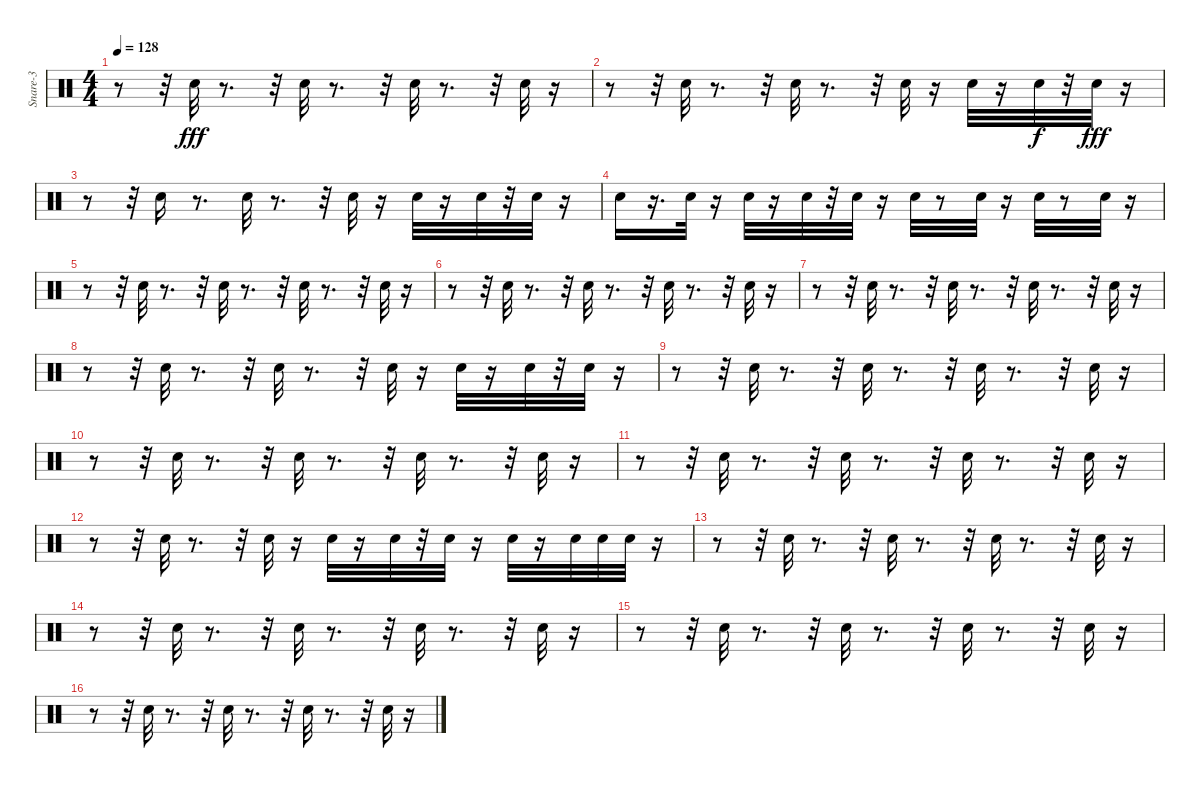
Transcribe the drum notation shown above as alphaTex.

\track ("Snare-3" "Snare-3") {instrument percussion}
\staff {score}
\articulation defaults
\ts (4 4)
\tempo 128
\clef neutral
\ks c
r.8{dy fff} r.32 "Electric Snare (hit)".32 r.8{d} r.32 "Electric Snare (hit)".32 r.8{d} r.32 "Electric Snare (hit)".32 r.8{d} r.32 "Electric Snare (hit)".32 r.16 |
r.8 r.32 "Electric Snare (hit)".32 r.8{d} r.32 "Electric Snare (hit)".32 r.8{d} r.32 "Electric Snare (hit)".32 r.16 "Electric Snare (hit)".32 r.16 "Electric Snare (hit)".32{dy f} r.32 "Electric Snare (hit)".32{dy fff} r.16 |
r.8 r.32 "Electric Snare (hit)".16 r.8{d} "Electric Snare (hit)".32 r.8{d} r.32 "Electric Snare (hit)".32 r.16 "Electric Snare (hit)".32 r.16 "Electric Snare (hit)".32 r.32 "Electric Snare (hit)".32 r.16 |
"Electric Snare (hit)".16 r.16{d} "Electric Snare (hit)".32 r.16 "Electric Snare (hit)".32 r.16 "Electric Snare (hit)".32 r.32 "Electric Snare (hit)".32 r.16 "Electric Snare (hit)".32 r.8 "Electric Snare (hit)".32 r.16 "Electric Snare (hit)".32 r.8 "Electric Snare (hit)".32 r.16 |
r.8 r.32 "Electric Snare (hit)".32 r.8{d} r.32 "Electric Snare (hit)".32 r.8{d} r.32 "Electric Snare (hit)".32 r.8{d} r.32 "Electric Snare (hit)".32 r.16 |
r.8 r.32 "Electric Snare (hit)".32 r.8{d} r.32 "Electric Snare (hit)".32 r.8{d} r.32 "Electric Snare (hit)".32 r.8{d} r.32 "Electric Snare (hit)".32 r.16 |
r.8 r.32 "Electric Snare (hit)".32 r.8{d} r.32 "Electric Snare (hit)".32 r.8{d} r.32 "Electric Snare (hit)".32 r.8{d} r.32 "Electric Snare (hit)".32 r.16 |
r.8 r.32 "Electric Snare (hit)".32 r.8{d} r.32 "Electric Snare (hit)".32 r.8{d} r.32 "Electric Snare (hit)".32 r.16 "Electric Snare (hit)".32 r.16 "Electric Snare (hit)".32 r.32 "Electric Snare (hit)".32 r.16 |
r.8 r.32 "Electric Snare (hit)".32 r.8{d} r.32 "Electric Snare (hit)".32 r.8{d} r.32 "Electric Snare (hit)".32 r.8{d} r.32 "Electric Snare (hit)".32 r.16 |
r.8 r.32 "Electric Snare (hit)".32 r.8{d} r.32 "Electric Snare (hit)".32 r.8{d} r.32 "Electric Snare (hit)".32 r.8{d} r.32 "Electric Snare (hit)".32 r.16 |
r.8 r.32 "Electric Snare (hit)".32 r.8{d} r.32 "Electric Snare (hit)".32 r.8{d} r.32 "Electric Snare (hit)".32 r.8{d} r.32 "Electric Snare (hit)".32 r.16 |
r.8 r.32 "Electric Snare (hit)".32 r.8{d} r.32 "Electric Snare (hit)".32 r.16 "Electric Snare (hit)".32 r.16 "Electric Snare (hit)".32 r.32 "Electric Snare (hit)".32 r.16 "Electric Snare (hit)".32 r.16 "Electric Snare (hit)".32 "Electric Snare (hit)".32 "Electric Snare (hit)".32 r.16 |
r.8 r.32 "Electric Snare (hit)".32 r.8{d} r.32 "Electric Snare (hit)".32 r.8{d} r.32 "Electric Snare (hit)".32 r.8{d} r.32 "Electric Snare (hit)".32 r.16 |
r.8 r.32 "Electric Snare (hit)".32 r.8{d} r.32 "Electric Snare (hit)".32 r.8{d} r.32 "Electric Snare (hit)".32 r.8{d} r.32 "Electric Snare (hit)".32 r.16 |
r.8 r.32 "Electric Snare (hit)".32 r.8{d} r.32 "Electric Snare (hit)".32 r.8{d} r.32 "Electric Snare (hit)".32 r.8{d} r.32 "Electric Snare (hit)".32 r.16 |
r.8 r.32 "Electric Snare (hit)".32 r.8{d} r.32 "Electric Snare (hit)".32 r.8{d} r.32 "Electric Snare (hit)".32 r.8{d} r.32 "Electric Snare (hit)".32 r.16
